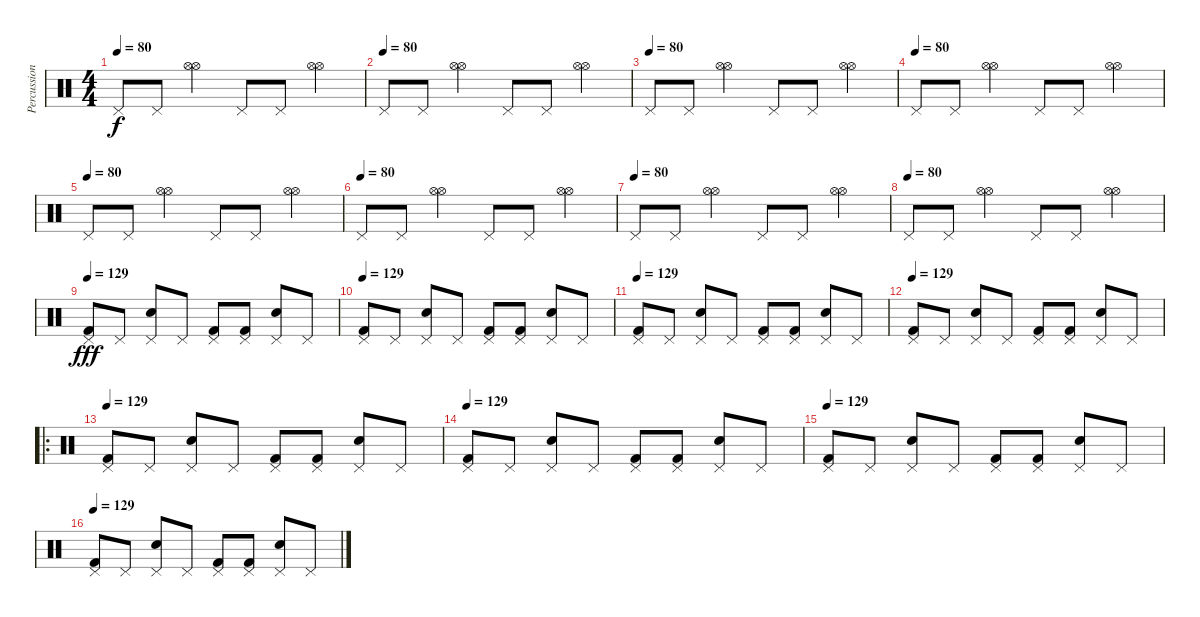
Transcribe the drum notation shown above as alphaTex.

\track ("Percussions" "Percussion") {instrument percussion}
\staff {score}
\articulation defaults
\ts (4 4)
\tempo 80
\clef neutral
\ks c "Pedal Hi-Hat (hit)".8{dy f} "Pedal Hi-Hat (hit)".8
("Hi-Hat (open)" "Hi-Hat (open)").4 "Pedal Hi-Hat (hit)".8 "Pedal Hi-Hat (hit)".8 ("Hi-Hat (open)" "Hi-Hat (open)").4 |
\tempo (80)
"Pedal Hi-Hat (hit)".8 "Pedal Hi-Hat (hit)".8 ("Hi-Hat (open)" "Hi-Hat (open)").4 "Pedal Hi-Hat (hit)".8 "Pedal Hi-Hat (hit)".8 ("Hi-Hat (open)" "Hi-Hat (open)").4 |
\tempo (80)
"Pedal Hi-Hat (hit)".8 "Pedal Hi-Hat (hit)".8 ("Hi-Hat (open)" "Hi-Hat (open)").4 "Pedal Hi-Hat (hit)".8 "Pedal Hi-Hat (hit)".8 ("Hi-Hat (open)" "Hi-Hat (open)").4 |
\tempo (80)
"Pedal Hi-Hat (hit)".8 "Pedal Hi-Hat (hit)".8 ("Hi-Hat (open)" "Hi-Hat (open)").4 "Pedal Hi-Hat (hit)".8 "Pedal Hi-Hat (hit)".8 ("Hi-Hat (open)" "Hi-Hat (open)").4 |
\tempo (80)
"Pedal Hi-Hat (hit)".8 "Pedal Hi-Hat (hit)".8 ("Hi-Hat (open)" "Hi-Hat (open)").4 "Pedal Hi-Hat (hit)".8 "Pedal Hi-Hat (hit)".8 ("Hi-Hat (open)" "Hi-Hat (open)").4 |
\tempo (80)
"Pedal Hi-Hat (hit)".8 "Pedal Hi-Hat (hit)".8 ("Hi-Hat (open)" "Hi-Hat (open)").4 "Pedal Hi-Hat (hit)".8 "Pedal Hi-Hat (hit)".8 ("Hi-Hat (open)" "Hi-Hat (open)").4 |
\tempo (80)
"Pedal Hi-Hat (hit)".8 "Pedal Hi-Hat (hit)".8 ("Hi-Hat (open)" "Hi-Hat (open)").4 "Pedal Hi-Hat (hit)".8 "Pedal Hi-Hat (hit)".8 ("Hi-Hat (open)" "Hi-Hat (open)").4 |
\tempo (80)
"Pedal Hi-Hat (hit)".8 "Pedal Hi-Hat (hit)".8 ("Hi-Hat (open)" "Hi-Hat (open)").4 "Pedal Hi-Hat (hit)".8 "Pedal Hi-Hat (hit)".8 ("Hi-Hat (open)" "Hi-Hat (open)").4 |
\tempo 129
("Pedal Hi-Hat (hit)" "Kick (hit) 2").8{dy fff} "Pedal Hi-Hat (hit)".8 ("Pedal Hi-Hat (hit)" "Electric Snare (hit)").8 "Pedal Hi-Hat (hit)".8 ("Pedal Hi-Hat (hit)" "Kick (hit) 2").8 ("Pedal Hi-Hat (hit)" "Kick (hit) 2").8 ("Pedal Hi-Hat (hit)" "Electric Snare (hit)").8 "Pedal Hi-Hat (hit)".8 |
\tempo 129
("Pedal Hi-Hat (hit)" "Kick (hit) 2").8 "Pedal Hi-Hat (hit)".8 ("Pedal Hi-Hat (hit)" "Electric Snare (hit)").8 "Pedal Hi-Hat (hit)".8 ("Pedal Hi-Hat (hit)" "Kick (hit) 2").8 ("Pedal Hi-Hat (hit)" "Kick (hit) 2").8 ("Pedal Hi-Hat (hit)" "Electric Snare (hit)").8 "Pedal Hi-Hat (hit)".8 |
\tempo 129
("Pedal Hi-Hat (hit)" "Kick (hit) 2").8 "Pedal Hi-Hat (hit)".8 ("Pedal Hi-Hat (hit)" "Electric Snare (hit)").8 "Pedal Hi-Hat (hit)".8 ("Pedal Hi-Hat (hit)" "Kick (hit) 2").8 ("Pedal Hi-Hat (hit)" "Kick (hit) 2").8 ("Pedal Hi-Hat (hit)" "Electric Snare (hit)").8 "Pedal Hi-Hat (hit)".8 |
\tempo 129
("Pedal Hi-Hat (hit)" "Kick (hit) 2").8 "Pedal Hi-Hat (hit)".8 ("Pedal Hi-Hat (hit)" "Electric Snare (hit)").8 "Pedal Hi-Hat (hit)".8 ("Pedal Hi-Hat (hit)" "Kick (hit) 2").8 ("Pedal Hi-Hat (hit)" "Kick (hit) 2").8 ("Pedal Hi-Hat (hit)" "Electric Snare (hit)").8 "Pedal Hi-Hat (hit)".8 |
\ro
\tempo 129
("Pedal Hi-Hat (hit)" "Kick (hit) 2").8 "Pedal Hi-Hat (hit)".8 ("Pedal Hi-Hat (hit)" "Electric Snare (hit)").8 "Pedal Hi-Hat (hit)".8 ("Pedal Hi-Hat (hit)" "Kick (hit) 2").8 ("Pedal Hi-Hat (hit)" "Kick (hit) 2").8 ("Pedal Hi-Hat (hit)" "Electric Snare (hit)").8 "Pedal Hi-Hat (hit)".8 |
\tempo 129
("Pedal Hi-Hat (hit)" "Kick (hit) 2").8 "Pedal Hi-Hat (hit)".8 ("Pedal Hi-Hat (hit)" "Electric Snare (hit)").8 "Pedal Hi-Hat (hit)".8 ("Pedal Hi-Hat (hit)" "Kick (hit) 2").8 ("Pedal Hi-Hat (hit)" "Kick (hit) 2").8 ("Pedal Hi-Hat (hit)" "Electric Snare (hit)").8 "Pedal Hi-Hat (hit)".8 |
\tempo 129
("Pedal Hi-Hat (hit)" "Kick (hit) 2").8 "Pedal Hi-Hat (hit)".8 ("Pedal Hi-Hat (hit)" "Electric Snare (hit)").8 "Pedal Hi-Hat (hit)".8 ("Pedal Hi-Hat (hit)" "Kick (hit) 2").8 ("Pedal Hi-Hat (hit)" "Kick (hit) 2").8 ("Pedal Hi-Hat (hit)" "Electric Snare (hit)").8 "Pedal Hi-Hat (hit)".8 |
\tempo 129
("Pedal Hi-Hat (hit)" "Kick (hit) 2").8 "Pedal Hi-Hat (hit)".8 ("Pedal Hi-Hat (hit)" "Electric Snare (hit)").8 "Pedal Hi-Hat (hit)".8 ("Pedal Hi-Hat (hit)" "Kick (hit) 2").8 ("Pedal Hi-Hat (hit)" "Kick (hit) 2").8 ("Pedal Hi-Hat (hit)" "Electric Snare (hit)").8 "Pedal Hi-Hat (hit)".8
